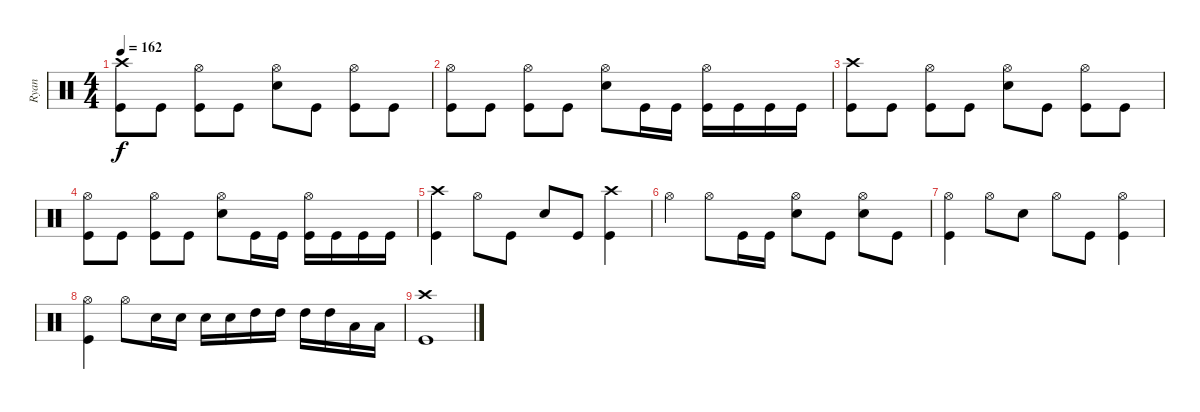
\track ("Ryan" "Ryan") {instrument percussion}
\staff {score}
\articulation defaults
\ts (4 4)
\tempo 162
\clef neutral
\ks c
("Crash high (hit)" "Kick (hit)").8{dy f} "Kick (hit)".8 ("Hi-Hat (open)" "Kick (hit)").8 "Kick (hit)".8 ("Hi-Hat (open)" "Electric Snare (hit)").8 "Kick (hit)".8 ("Hi-Hat (open)" "Kick (hit)").8 "Kick (hit)".8 |
("Hi-Hat (open)" "Kick (hit)").8 "Kick (hit)".8 ("Hi-Hat (open)" "Kick (hit)").8 "Kick (hit)".8 ("Hi-Hat (open)" "Electric Snare (hit)").8 "Kick (hit)".16 "Kick (hit)".16 ("Hi-Hat (open)" "Kick (hit)").16 "Kick (hit)".16 "Kick (hit)".16 "Kick (hit)".16 |
("Crash high (hit)" "Kick (hit)").8 "Kick (hit)".8 ("Hi-Hat (open)" "Kick (hit)").8 "Kick (hit)".8 ("Hi-Hat (open)" "Electric Snare (hit)").8 "Kick (hit)".8 ("Hi-Hat (open)" "Kick (hit)").8 "Kick (hit)".8 |
("Hi-Hat (open)" "Kick (hit)").8 "Kick (hit)".8 ("Hi-Hat (open)" "Kick (hit)").8 "Kick (hit)".8 ("Hi-Hat (open)" "Electric Snare (hit)").8 "Kick (hit)".16 "Kick (hit)".16 ("Hi-Hat (open)" "Kick (hit)").16 "Kick (hit)".16 "Kick (hit)".16 "Kick (hit)".16 |
("Crash high (hit)" "Kick (hit)").4 "Hi-Hat (open)".8 "Kick (hit)".8 "Electric Snare (hit)".8 "Kick (hit)".8 ("Crash high (hit)" "Kick (hit)").4 |
"Hi-Hat (open)".4 "Hi-Hat (open)".8 "Kick (hit)".16 "Kick (hit)".16 ("Hi-Hat (open)" "Electric Snare (hit)").8 "Kick (hit)".8 ("Hi-Hat (open)" "Electric Snare (hit)").8 "Kick (hit)".8 |
("Hi-Hat (open)" "Kick (hit)").4 "Hi-Hat (open)".8 "Electric Snare (hit)".8 "Hi-Hat (open)".8 "Kick (hit)".8 ("Hi-Hat (open)" "Kick (hit)").4 |
("Hi-Hat (open)" "Kick (hit)").4 "Hi-Hat (open)".8 "Electric Snare (hit)".16 "Electric Snare (hit)".16 "Electric Snare (hit)".16 "Electric Snare (hit)".16 "High Tom (hit)".16 "High Tom (hit)".16 "High Tom (hit)".16 "High Tom (hit)".16 "Low Floor Tom (hit)".16 "Low Floor Tom (hit)".16 |
("Crash high (hit)" "Kick (hit)").1
